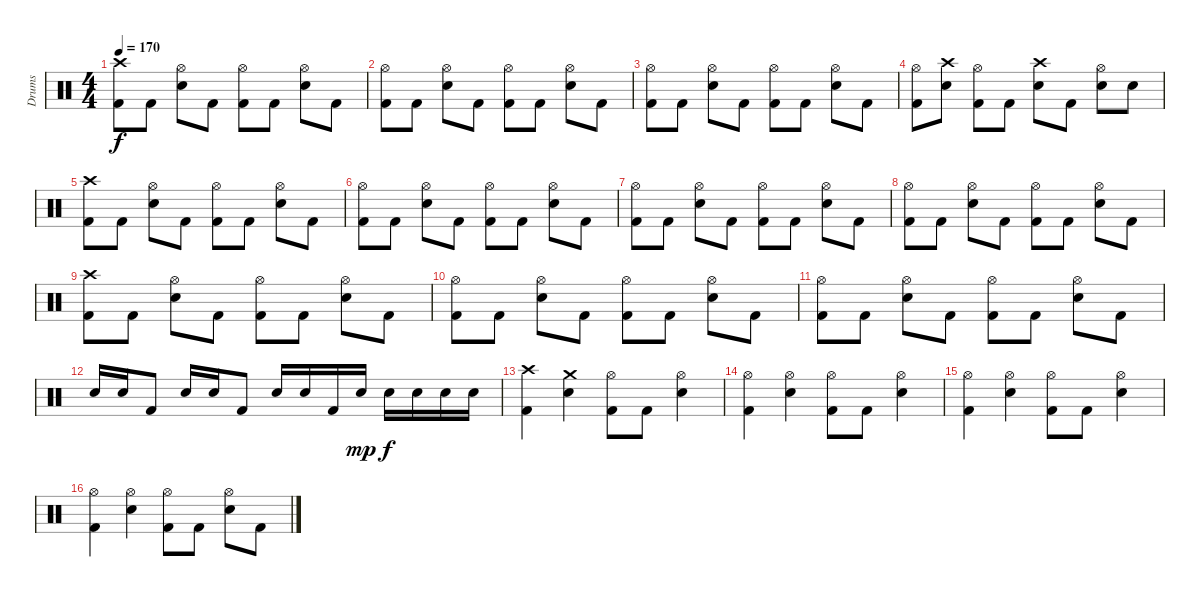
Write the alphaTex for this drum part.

\track ("Drums" "Drums") {instrument percussion}
\staff {score}
\articulation defaults
\ts (4 4)
\tempo 170
\clef neutral
\ks c
("Crash high (hit)" "Kick (hit) 2").8{dy f} "Kick (hit) 2".8 ("Hi-Hat (open)" "Snare (hit) 2").8 "Kick (hit) 2".8 ("Hi-Hat (open)" "Kick (hit) 2").8 "Kick (hit) 2".8 ("Hi-Hat (open)" "Snare (hit) 2").8 "Kick (hit) 2".8 |
("Hi-Hat (open)" "Kick (hit) 2").8 "Kick (hit) 2".8 ("Hi-Hat (open)" "Snare (hit) 2").8 "Kick (hit) 2".8 ("Hi-Hat (open)" "Kick (hit) 2").8 "Kick (hit) 2".8 ("Hi-Hat (open)" "Snare (hit) 2").8 "Kick (hit) 2".8 |
("Hi-Hat (open)" "Kick (hit) 2").8 "Kick (hit) 2".8 ("Hi-Hat (open)" "Snare (hit) 2").8 "Kick (hit) 2".8 ("Hi-Hat (open)" "Kick (hit) 2").8 "Kick (hit) 2".8 ("Hi-Hat (open)" "Snare (hit) 2").8 "Kick (hit) 2".8 |
("Hi-Hat (open)" "Kick (hit) 2").8 ("Crash high (hit)" "Snare (hit) 2").8 ("Hi-Hat (open)" "Kick (hit) 2").8 "Kick (hit) 2".8 ("Crash high (hit)" "Snare (hit) 2").8 "Kick (hit) 2".8 ("Hi-Hat (open)" "Snare (hit) 2").8 "Snare (hit) 2".8 |
("Crash high (hit)" "Kick (hit) 2").8 "Kick (hit) 2".8 ("Hi-Hat (open)" "Snare (hit) 2").8 "Kick (hit) 2".8 ("Hi-Hat (open)" "Kick (hit) 2").8 "Kick (hit) 2".8 ("Hi-Hat (open)" "Snare (hit) 2").8 "Kick (hit) 2".8 |
("Hi-Hat (open)" "Kick (hit) 2").8 "Kick (hit) 2".8 ("Hi-Hat (open)" "Snare (hit) 2").8 "Kick (hit) 2".8 ("Hi-Hat (open)" "Kick (hit) 2").8 "Kick (hit) 2".8 ("Hi-Hat (open)" "Snare (hit) 2").8 "Kick (hit) 2".8 |
("Hi-Hat (open)" "Kick (hit) 2").8 "Kick (hit) 2".8 ("Hi-Hat (open)" "Snare (hit) 2").8 "Kick (hit) 2".8 ("Hi-Hat (open)" "Kick (hit) 2").8 "Kick (hit) 2".8 ("Hi-Hat (open)" "Snare (hit) 2").8 "Kick (hit) 2".8 |
("Hi-Hat (open)" "Kick (hit) 2").8 "Kick (hit) 2".8 ("Hi-Hat (open)" "Snare (hit) 2").8 "Kick (hit) 2".8 ("Hi-Hat (open)" "Kick (hit) 2").8 "Kick (hit) 2".8 ("Hi-Hat (open)" "Snare (hit) 2").8 "Kick (hit) 2".8 |
("Crash high (hit)" "Kick (hit) 2").8 "Kick (hit) 2".8 ("Hi-Hat (open)" "Snare (hit) 2").8 "Kick (hit) 2".8 ("Hi-Hat (open)" "Kick (hit) 2").8 "Kick (hit) 2".8 ("Hi-Hat (open)" "Snare (hit) 2").8 "Kick (hit) 2".8 |
("Hi-Hat (open)" "Kick (hit) 2").8 "Kick (hit) 2".8 ("Hi-Hat (open)" "Snare (hit) 2").8 "Kick (hit) 2".8 ("Hi-Hat (open)" "Kick (hit) 2").8 "Kick (hit) 2".8 ("Hi-Hat (open)" "Snare (hit) 2").8 "Kick (hit) 2".8 |
("Hi-Hat (open)" "Kick (hit) 2").8 "Kick (hit) 2".8 ("Hi-Hat (open)" "Snare (hit) 2").8 "Kick (hit) 2".8 ("Hi-Hat (open)" "Kick (hit) 2").8 "Kick (hit) 2".8 ("Hi-Hat (open)" "Snare (hit) 2").8 "Kick (hit) 2".8 |
"Snare (hit) 2".16 "Snare (hit) 2".16 "Kick (hit) 2".8 "Snare (hit) 2".16 "Snare (hit) 2".16 "Kick (hit) 2".8 "Snare (hit) 2".16 "Snare (hit) 2".16 "Kick (hit) 2".16 "Snare (hit) 2".16{dy mp} "Snare (hit) 2".16{dy f} "Snare (hit) 2".16 "Snare (hit) 2".16 "Snare (hit) 2".16 |
("Crash high (hit)" "Kick (hit) 2").4 ("Crash medium (hit)" "Snare (hit) 2").4 ("Hi-Hat (open)" "Kick (hit) 2").8 "Kick (hit) 2".8 ("Hi-Hat (open)" "Snare (hit) 2").4 |
("Hi-Hat (open)" "Kick (hit) 2").4 ("Hi-Hat (open)" "Snare (hit) 2").4 ("Hi-Hat (open)" "Kick (hit) 2").8 "Kick (hit) 2".8 ("Hi-Hat (open)" "Snare (hit) 2").4 |
("Hi-Hat (open)" "Kick (hit) 2").4 ("Hi-Hat (open)" "Snare (hit) 2").4 ("Hi-Hat (open)" "Kick (hit) 2").8 "Kick (hit) 2".8 ("Hi-Hat (open)" "Snare (hit) 2").4 |
("Hi-Hat (open)" "Kick (hit) 2").4 ("Hi-Hat (open)" "Snare (hit) 2").4 ("Hi-Hat (open)" "Kick (hit) 2").8 "Kick (hit) 2".8 ("Hi-Hat (open)" "Snare (hit) 2").8 "Kick (hit) 2".8
